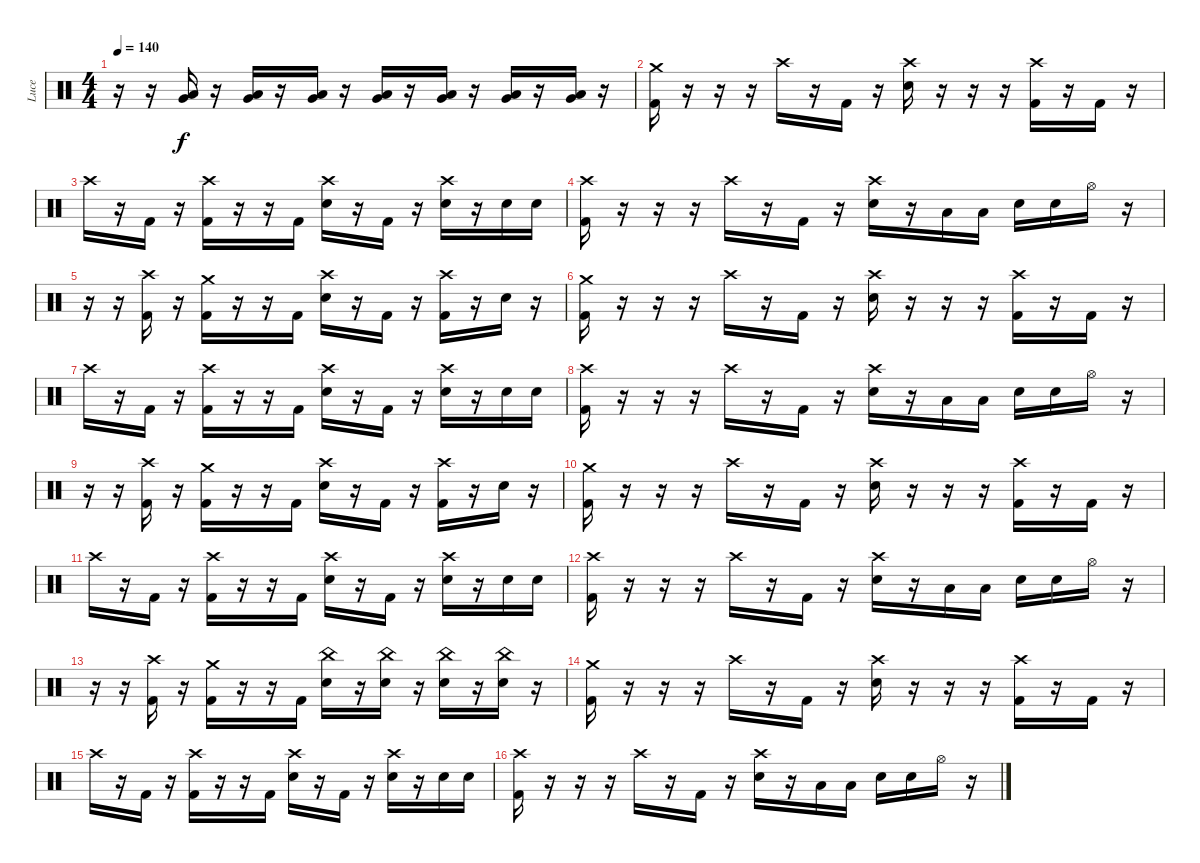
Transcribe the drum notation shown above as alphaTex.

\track ("Luce" "Luce") {instrument percussion}
\staff {score}
\articulation defaults
\ts (4 4)
\tempo 140
\clef neutral
\ks c
r.16{dy f} r.16 ("Low Floor Tom (hit)" "Very Low Tom (hit)").16 r.16 ("Low Floor Tom (hit)" "Very Low Tom (hit)").16 r.16 ("Low Floor Tom (hit)" "Very Low Tom (hit)").16 r.16 ("Low Floor Tom (hit)" "Very Low Tom (hit)").16 r.16 ("Low Floor Tom (hit)" "Very Low Tom (hit)").16 r.16 ("Low Floor Tom (hit)" "Very Low Tom (hit)").16 r.16 ("Low Floor Tom (hit)" "Very Low Tom (hit)").16 r.16 |
("Crash medium (hit)" "Kick (hit) 2").16 r.16 r.16 r.16 "Crash high (hit)".16 r.16 "Kick (hit) 2".16 r.16 ("Crash high (hit)" "Electric Snare (hit)").16 r.16 r.16 r.16 ("Crash high (hit)" "Kick (hit) 2").16 r.16 "Kick (hit) 2".16 r.16 |
"Crash high (hit)".16 r.16 "Kick (hit) 2".16 r.16 ("Crash high (hit)" "Kick (hit) 2").16 r.16 r.16 "Kick (hit) 2".16 ("Crash high (hit)" "Electric Snare (hit)").16 r.16 "Kick (hit) 2".16 r.16 ("Crash high (hit)" "Electric Snare (hit)").16 r.16 "Electric Snare (hit)".16 "Electric Snare (hit)".16 |
("Crash high (hit)" "Kick (hit) 2").16 r.16 r.16 r.16 "Crash high (hit)".16 r.16 "Kick (hit) 2".16 r.16 ("Crash high (hit)" "Electric Snare (hit)").16 r.16 "Low Tom (hit)".16 "Low Tom (hit)".16 "Electric Snare (hit)".16 "Electric Snare (hit)".16 "Hi-Hat (open)".16 r.16 |
r.16 r.16 ("Crash high (hit)" "Kick (hit) 2").16 r.16 ("Crash medium (hit)" "Kick (hit) 2").16 r.16 r.16 "Kick (hit) 2".16 ("Crash high (hit)" "Electric Snare (hit)").16 r.16 "Kick (hit) 2".16 r.16 ("Crash high (hit)" "Kick (hit) 2").16 r.16 "Electric Snare (hit)".16 r.16 |
("Crash medium (hit)" "Kick (hit) 2").16 r.16 r.16 r.16 "Crash high (hit)".16 r.16 "Kick (hit) 2".16 r.16 ("Crash high (hit)" "Electric Snare (hit)").16 r.16 r.16 r.16 ("Crash high (hit)" "Kick (hit) 2").16 r.16 "Kick (hit) 2".16 r.16 |
"Crash high (hit)".16 r.16 "Kick (hit) 2".16 r.16 ("Crash high (hit)" "Kick (hit) 2").16 r.16 r.16 "Kick (hit) 2".16 ("Crash high (hit)" "Electric Snare (hit)").16 r.16 "Kick (hit) 2".16 r.16 ("Crash high (hit)" "Electric Snare (hit)").16 r.16 "Electric Snare (hit)".16 "Electric Snare (hit)".16 |
("Crash high (hit)" "Kick (hit) 2").16 r.16 r.16 r.16 "Crash high (hit)".16 r.16 "Kick (hit) 2".16 r.16 ("Crash high (hit)" "Electric Snare (hit)").16 r.16 "Low Tom (hit)".16 "Low Tom (hit)".16 "Electric Snare (hit)".16 "Electric Snare (hit)".16 "Hi-Hat (open)".16 r.16 |
r.16 r.16 ("Crash high (hit)" "Kick (hit) 2").16 r.16 ("Crash medium (hit)" "Kick (hit) 2").16 r.16 r.16 "Kick (hit) 2".16 ("Crash high (hit)" "Electric Snare (hit)").16 r.16 "Kick (hit) 2".16 r.16 ("Crash high (hit)" "Kick (hit) 2").16 r.16 "Electric Snare (hit)".16 r.16 |
("Crash medium (hit)" "Kick (hit) 2").16 r.16 r.16 r.16 "Crash high (hit)".16 r.16 "Kick (hit) 2".16 r.16 ("Crash high (hit)" "Electric Snare (hit)").16 r.16 r.16 r.16 ("Crash high (hit)" "Kick (hit) 2").16 r.16 "Kick (hit) 2".16 r.16 |
"Crash high (hit)".16 r.16 "Kick (hit) 2".16 r.16 ("Crash high (hit)" "Kick (hit) 2").16 r.16 r.16 "Kick (hit) 2".16 ("Crash high (hit)" "Electric Snare (hit)").16 r.16 "Kick (hit) 2".16 r.16 ("Crash high (hit)" "Electric Snare (hit)").16 r.16 "Electric Snare (hit)".16 "Electric Snare (hit)".16 |
("Crash high (hit)" "Kick (hit) 2").16 r.16 r.16 r.16 "Crash high (hit)".16 r.16 "Kick (hit) 2".16 r.16 ("Crash high (hit)" "Electric Snare (hit)").16 r.16 "Low Tom (hit)".16 "Low Tom (hit)".16 "Electric Snare (hit)".16 "Electric Snare (hit)".16 "Hi-Hat (open)".16 r.16 |
r.16 r.16 ("Crash high (hit)" "Kick (hit) 2").16 r.16 ("Crash medium (hit)" "Kick (hit) 2").16 r.16 r.16 "Kick (hit) 2".16 ("China (hit)" "Electric Snare (hit)").16 r.16 ("China (hit)" "Electric Snare (hit)").16 r.16 ("China (hit)" "Electric Snare (hit)").16 r.16 ("China (hit)" "Electric Snare (hit)").16 r.16 |
("Crash medium (hit)" "Kick (hit) 2").16 r.16 r.16 r.16 "Crash high (hit)".16 r.16 "Kick (hit) 2".16 r.16 ("Crash high (hit)" "Electric Snare (hit)").16 r.16 r.16 r.16 ("Crash high (hit)" "Kick (hit) 2").16 r.16 "Kick (hit) 2".16 r.16 |
"Crash high (hit)".16 r.16 "Kick (hit) 2".16 r.16 ("Crash high (hit)" "Kick (hit) 2").16 r.16 r.16 "Kick (hit) 2".16 ("Crash high (hit)" "Electric Snare (hit)").16 r.16 "Kick (hit) 2".16 r.16 ("Crash high (hit)" "Electric Snare (hit)").16 r.16 "Electric Snare (hit)".16 "Electric Snare (hit)".16 |
("Crash high (hit)" "Kick (hit) 2").16 r.16 r.16 r.16 "Crash high (hit)".16 r.16 "Kick (hit) 2".16 r.16 ("Crash high (hit)" "Electric Snare (hit)").16 r.16 "Low Tom (hit)".16 "Low Tom (hit)".16 "Electric Snare (hit)".16 "Electric Snare (hit)".16 "Hi-Hat (open)".16 r.16
